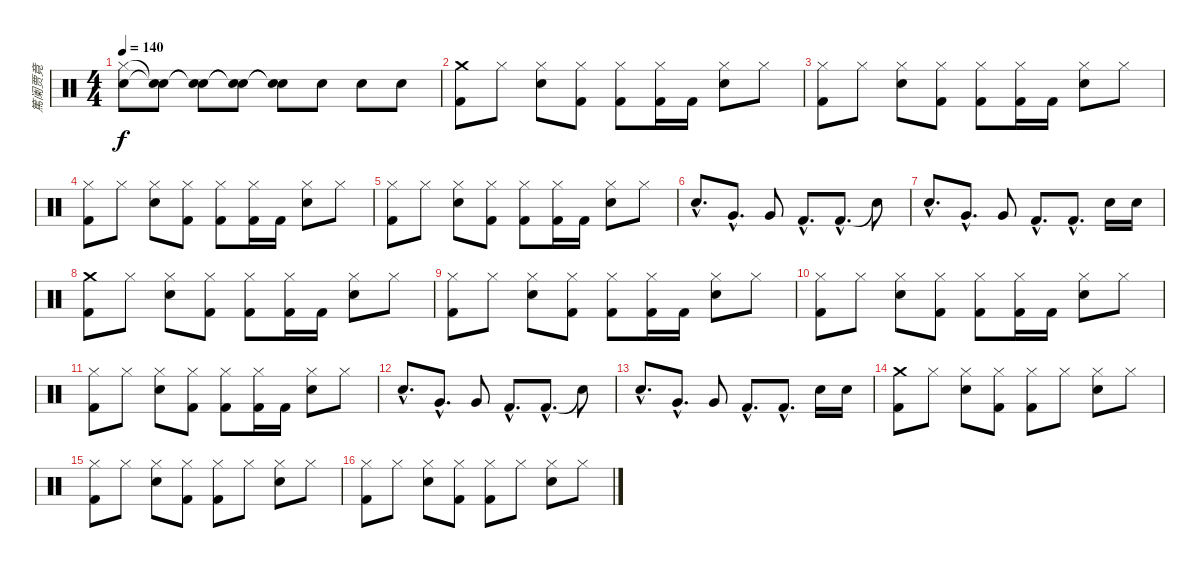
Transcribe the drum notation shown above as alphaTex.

\track ("篤阑贾竟" "篤阑贾竟") {instrument percussion}
\staff {score}
\articulation defaults
\ts (4 4)
\tempo 140
\clef neutral
\ks c
("Hi-Hat (closed)" "Snare (hit) 2").8{dy f} ("Snare (hit)"{t} "Snare (hit)"{t}).8 ("Snare (hit)"{t} "Snare (hit)"{t}).8 ("Snare (hit)"{t} "Snare (hit)"{t}).8 ("Snare (hit)"{t} "Snare (hit)"{t}).8 "Snare (hit) 2".8 "Snare (hit) 2".8 "Snare (hit) 2".8 |
("Crash medium (hit)" "Kick (hit) 2").8 "Hi-Hat (closed)".8 ("Hi-Hat (closed)" "Snare (hit) 2").8 ("Hi-Hat (closed)" "Kick (hit) 2").8 ("Hi-Hat (closed)" "Kick (hit) 2").8 ("Hi-Hat (closed)" "Kick (hit) 2").16 "Kick (hit) 2".16 ("Hi-Hat (closed)" "Snare (hit) 2").8 "Hi-Hat (closed)".8 |
("Hi-Hat (closed)" "Kick (hit) 2").8 "Hi-Hat (closed)".8 ("Hi-Hat (closed)" "Snare (hit) 2").8 ("Hi-Hat (closed)" "Kick (hit) 2").8 ("Hi-Hat (closed)" "Kick (hit) 2").8 ("Hi-Hat (closed)" "Kick (hit) 2").16 "Kick (hit) 2".16 ("Hi-Hat (closed)" "Snare (hit) 2").8 "Hi-Hat (closed)".8 |
("Hi-Hat (closed)" "Kick (hit) 2").8 "Hi-Hat (closed)".8 ("Hi-Hat (closed)" "Snare (hit) 2").8 ("Hi-Hat (closed)" "Kick (hit) 2").8 ("Hi-Hat (closed)" "Kick (hit) 2").8 ("Hi-Hat (closed)" "Kick (hit) 2").16 "Kick (hit) 2".16 ("Hi-Hat (closed)" "Snare (hit) 2").8 "Hi-Hat (closed)".8 |
("Hi-Hat (closed)" "Kick (hit) 2").8 "Hi-Hat (closed)".8 ("Hi-Hat (closed)" "Snare (hit) 2").8 ("Hi-Hat (closed)" "Kick (hit) 2").8 ("Hi-Hat (closed)" "Kick (hit) 2").8 ("Hi-Hat (closed)" "Kick (hit) 2").16 "Kick (hit) 2".16 ("Hi-Hat (closed)" "Snare (hit) 2").8 "Hi-Hat (closed)".8 |
"Snare (hit) 2"{hac}.8{d} "Very Low Tom (hit)"{hac}.8{d} "Very Low Tom (hit)".8 "Kick (hit) 2"{hac}.8{d} "Kick (hit) 2"{hac}.8{d} "Snare (hit)"{t}.8 |
"Snare (hit) 2"{hac}.8{d} "Very Low Tom (hit)"{hac}.8{d} "Very Low Tom (hit)".8 "Kick (hit) 2"{hac}.8{d} "Kick (hit) 2"{hac}.8{d} "Snare (hit) 2".16 "Snare (hit) 2".16 |
("Crash medium (hit)" "Kick (hit) 2").8 "Hi-Hat (closed)".8 ("Hi-Hat (closed)" "Snare (hit) 2").8 ("Hi-Hat (closed)" "Kick (hit) 2").8 ("Hi-Hat (closed)" "Kick (hit) 2").8 ("Hi-Hat (closed)" "Kick (hit) 2").16 "Kick (hit) 2".16 ("Hi-Hat (closed)" "Snare (hit) 2").8 "Hi-Hat (closed)".8 |
("Hi-Hat (closed)" "Kick (hit) 2").8 "Hi-Hat (closed)".8 ("Hi-Hat (closed)" "Snare (hit) 2").8 ("Hi-Hat (closed)" "Kick (hit) 2").8 ("Hi-Hat (closed)" "Kick (hit) 2").8 ("Hi-Hat (closed)" "Kick (hit) 2").16 "Kick (hit) 2".16 ("Hi-Hat (closed)" "Snare (hit) 2").8 "Hi-Hat (closed)".8 |
("Hi-Hat (closed)" "Kick (hit) 2").8 "Hi-Hat (closed)".8 ("Hi-Hat (closed)" "Snare (hit) 2").8 ("Hi-Hat (closed)" "Kick (hit) 2").8 ("Hi-Hat (closed)" "Kick (hit) 2").8 ("Hi-Hat (closed)" "Kick (hit) 2").16 "Kick (hit) 2".16 ("Hi-Hat (closed)" "Snare (hit) 2").8 "Hi-Hat (closed)".8 |
("Hi-Hat (closed)" "Kick (hit) 2").8 "Hi-Hat (closed)".8 ("Hi-Hat (closed)" "Snare (hit) 2").8 ("Hi-Hat (closed)" "Kick (hit) 2").8 ("Hi-Hat (closed)" "Kick (hit) 2").8 ("Hi-Hat (closed)" "Kick (hit) 2").16 "Kick (hit) 2".16 ("Hi-Hat (closed)" "Snare (hit) 2").8 "Hi-Hat (closed)".8 |
"Snare (hit) 2"{hac}.8{d} "Very Low Tom (hit)"{hac}.8{d} "Very Low Tom (hit)".8 "Kick (hit) 2"{hac}.8{d} "Kick (hit) 2"{hac}.8{d} "Snare (hit)"{t}.8 |
"Snare (hit) 2"{hac}.8{d} "Very Low Tom (hit)"{hac}.8{d} "Very Low Tom (hit)".8 "Kick (hit) 2"{hac}.8{d} "Kick (hit) 2"{hac}.8{d} "Snare (hit) 2".16 "Snare (hit) 2".16 |
("Crash medium (hit)" "Kick (hit) 2").8 "Hi-Hat (closed)".8 ("Hi-Hat (closed)" "Snare (hit) 2").8 ("Hi-Hat (closed)" "Kick (hit) 2").8 ("Hi-Hat (closed)" "Kick (hit) 2").8 "Hi-Hat (closed)".8 ("Hi-Hat (closed)" "Snare (hit) 2").8 "Hi-Hat (closed)".8 |
("Hi-Hat (closed)" "Kick (hit) 2").8 "Hi-Hat (closed)".8 ("Hi-Hat (closed)" "Snare (hit) 2").8 ("Hi-Hat (closed)" "Kick (hit) 2").8 ("Hi-Hat (closed)" "Kick (hit) 2").8 "Hi-Hat (closed)".8 ("Hi-Hat (closed)" "Snare (hit) 2").8 "Hi-Hat (closed)".8 |
("Hi-Hat (closed)" "Kick (hit) 2").8 "Hi-Hat (closed)".8 ("Hi-Hat (closed)" "Snare (hit) 2").8 ("Hi-Hat (closed)" "Kick (hit) 2").8 ("Hi-Hat (closed)" "Kick (hit) 2").8 "Hi-Hat (closed)".8 ("Hi-Hat (closed)" "Snare (hit) 2").8 "Hi-Hat (closed)".8
